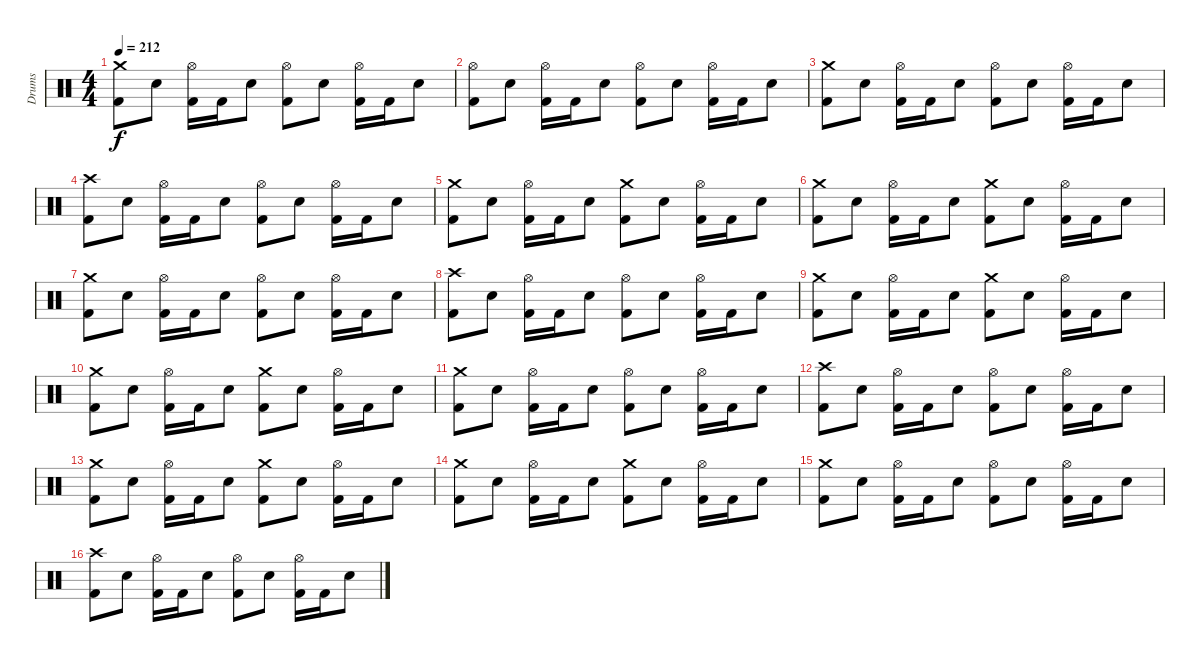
\track ("Drums" "Drums") {instrument percussion}
\staff {score}
\articulation defaults
\ts (4 4)
\tempo 212
\clef neutral
\ks c
("Crash medium (hit)" "Kick (hit) 2").8{dy f} "Electric Snare (hit)".8 ("Hi-Hat (open)" "Kick (hit) 2").16 "Kick (hit) 2".16 "Electric Snare (hit)".8 ("Hi-Hat (open)" "Kick (hit) 2").8 "Electric Snare (hit)".8 ("Hi-Hat (open)" "Kick (hit) 2").16 "Kick (hit) 2".16 "Electric Snare (hit)".8 |
("Hi-Hat (open)" "Kick (hit) 2").8 "Electric Snare (hit)".8 ("Hi-Hat (open)" "Kick (hit) 2").16 "Kick (hit) 2".16 "Electric Snare (hit)".8 ("Hi-Hat (open)" "Kick (hit) 2").8 "Electric Snare (hit)".8 ("Hi-Hat (open)" "Kick (hit) 2").16 "Kick (hit) 2".16 "Electric Snare (hit)".8 |
("Crash medium (hit)" "Kick (hit) 2").8 "Electric Snare (hit)".8 ("Hi-Hat (open)" "Kick (hit) 2").16 "Kick (hit) 2".16 "Electric Snare (hit)".8 ("Hi-Hat (open)" "Kick (hit) 2").8 "Electric Snare (hit)".8 ("Hi-Hat (open)" "Kick (hit) 2").16 "Kick (hit) 2".16 "Electric Snare (hit)".8 |
("Crash high (hit)" "Kick (hit) 2").8 "Electric Snare (hit)".8 ("Hi-Hat (open)" "Kick (hit) 2").16 "Kick (hit) 2".16 "Electric Snare (hit)".8 ("Hi-Hat (open)" "Kick (hit) 2").8 "Electric Snare (hit)".8 ("Hi-Hat (open)" "Kick (hit) 2").16 "Kick (hit) 2".16 "Electric Snare (hit)".8 |
("Crash medium (hit)" "Kick (hit) 2").8 "Electric Snare (hit)".8 ("Hi-Hat (open)" "Kick (hit) 2").16 "Kick (hit) 2".16 "Electric Snare (hit)".8 ("Crash medium (hit)" "Kick (hit) 2").8 "Electric Snare (hit)".8 ("Hi-Hat (open)" "Kick (hit) 2").16 "Kick (hit) 2".16 "Electric Snare (hit)".8 |
("Crash medium (hit)" "Kick (hit) 2").8 "Electric Snare (hit)".8 ("Hi-Hat (open)" "Kick (hit) 2").16 "Kick (hit) 2".16 "Electric Snare (hit)".8 ("Crash medium (hit)" "Kick (hit) 2").8 "Electric Snare (hit)".8 ("Hi-Hat (open)" "Kick (hit) 2").16 "Kick (hit) 2".16 "Electric Snare (hit)".8 |
("Crash medium (hit)" "Kick (hit) 2").8 "Electric Snare (hit)".8 ("Hi-Hat (open)" "Kick (hit) 2").16 "Kick (hit) 2".16 "Electric Snare (hit)".8 ("Hi-Hat (open)" "Kick (hit) 2").8 "Electric Snare (hit)".8 ("Hi-Hat (open)" "Kick (hit) 2").16 "Kick (hit) 2".16 "Electric Snare (hit)".8 |
("Crash high (hit)" "Kick (hit) 2").8 "Electric Snare (hit)".8 ("Hi-Hat (open)" "Kick (hit) 2").16 "Kick (hit) 2".16 "Electric Snare (hit)".8 ("Hi-Hat (open)" "Kick (hit) 2").8 "Electric Snare (hit)".8 ("Hi-Hat (open)" "Kick (hit) 2").16 "Kick (hit) 2".16 "Electric Snare (hit)".8 |
("Crash medium (hit)" "Kick (hit) 2").8 "Electric Snare (hit)".8 ("Hi-Hat (open)" "Kick (hit) 2").16 "Kick (hit) 2".16 "Electric Snare (hit)".8 ("Crash medium (hit)" "Kick (hit) 2").8 "Electric Snare (hit)".8 ("Hi-Hat (open)" "Kick (hit) 2").16 "Kick (hit) 2".16 "Electric Snare (hit)".8 |
("Crash medium (hit)" "Kick (hit) 2").8 "Electric Snare (hit)".8 ("Hi-Hat (open)" "Kick (hit) 2").16 "Kick (hit) 2".16 "Electric Snare (hit)".8 ("Crash medium (hit)" "Kick (hit) 2").8 "Electric Snare (hit)".8 ("Hi-Hat (open)" "Kick (hit) 2").16 "Kick (hit) 2".16 "Electric Snare (hit)".8 |
("Crash medium (hit)" "Kick (hit) 2").8 "Electric Snare (hit)".8 ("Hi-Hat (open)" "Kick (hit) 2").16 "Kick (hit) 2".16 "Electric Snare (hit)".8 ("Hi-Hat (open)" "Kick (hit) 2").8 "Electric Snare (hit)".8 ("Hi-Hat (open)" "Kick (hit) 2").16 "Kick (hit) 2".16 "Electric Snare (hit)".8 |
("Crash high (hit)" "Kick (hit) 2").8 "Electric Snare (hit)".8 ("Hi-Hat (open)" "Kick (hit) 2").16 "Kick (hit) 2".16 "Electric Snare (hit)".8 ("Hi-Hat (open)" "Kick (hit) 2").8 "Electric Snare (hit)".8 ("Hi-Hat (open)" "Kick (hit) 2").16 "Kick (hit) 2".16 "Electric Snare (hit)".8 |
("Crash medium (hit)" "Kick (hit) 2").8 "Electric Snare (hit)".8 ("Hi-Hat (open)" "Kick (hit) 2").16 "Kick (hit) 2".16 "Electric Snare (hit)".8 ("Crash medium (hit)" "Kick (hit) 2").8 "Electric Snare (hit)".8 ("Hi-Hat (open)" "Kick (hit) 2").16 "Kick (hit) 2".16 "Electric Snare (hit)".8 |
("Crash medium (hit)" "Kick (hit) 2").8 "Electric Snare (hit)".8 ("Hi-Hat (open)" "Kick (hit) 2").16 "Kick (hit) 2".16 "Electric Snare (hit)".8 ("Crash medium (hit)" "Kick (hit) 2").8 "Electric Snare (hit)".8 ("Hi-Hat (open)" "Kick (hit) 2").16 "Kick (hit) 2".16 "Electric Snare (hit)".8 |
("Crash medium (hit)" "Kick (hit) 2").8 "Electric Snare (hit)".8 ("Hi-Hat (open)" "Kick (hit) 2").16 "Kick (hit) 2".16 "Electric Snare (hit)".8 ("Hi-Hat (open)" "Kick (hit) 2").8 "Electric Snare (hit)".8 ("Hi-Hat (open)" "Kick (hit) 2").16 "Kick (hit) 2".16 "Electric Snare (hit)".8 |
("Crash high (hit)" "Kick (hit) 2").8 "Electric Snare (hit)".8 ("Hi-Hat (open)" "Kick (hit) 2").16 "Kick (hit) 2".16 "Electric Snare (hit)".8 ("Hi-Hat (open)" "Kick (hit) 2").8 "Electric Snare (hit)".8 ("Hi-Hat (open)" "Kick (hit) 2").16 "Kick (hit) 2".16 "Electric Snare (hit)".8
